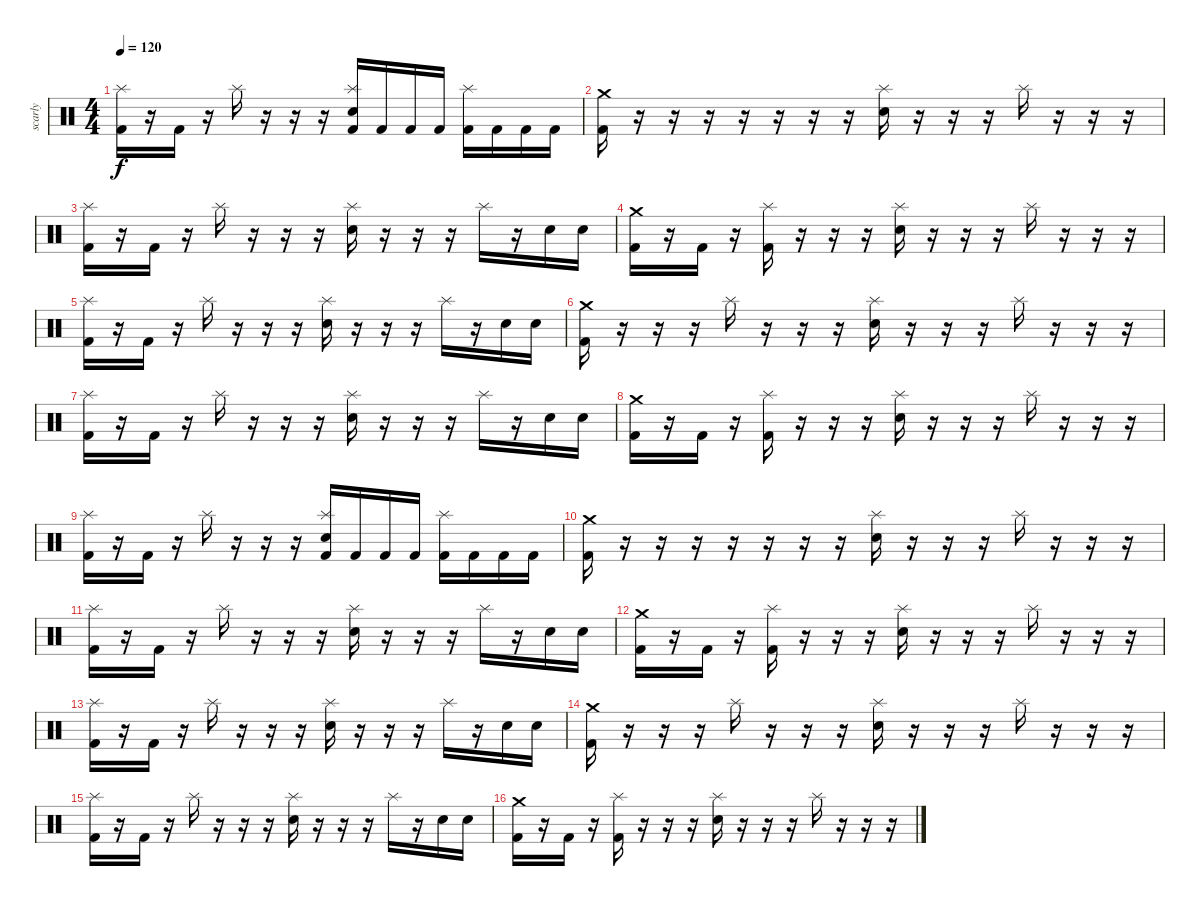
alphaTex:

\track ("scarly" "scarly") {instrument percussion}
\staff {score}
\articulation defaults
\ts (4 4)
\tempo 120
\clef neutral
\ks c
("Kick (hit) 2" "Splash (hit)").16{dy f} r.16 "Kick (hit) 2".16 r.16 "Splash (hit)".16 r.16 r.16 r.16 ("Snare (hit) 2" "Kick (hit) 2" "Splash (hit)").16 "Kick (hit) 2".16 "Kick (hit) 2".16 "Kick (hit) 2".16 ("Kick (hit) 2" "Splash (hit)").16 "Kick (hit) 2".16 "Kick (hit) 2".16 "Kick (hit) 2".16 |
("Kick (hit) 2" "Crash medium (hit)").16 r.16 r.16 r.16 r.16 r.16 r.16 r.16 ("Snare (hit) 2" "Splash (hit)").16 r.16 r.16 r.16 "Splash (hit)".16 r.16 r.16 r.16 |
("Kick (hit) 2" "Splash (hit)").16 r.16 "Kick (hit) 2".16 r.16 "Splash (hit)".16 r.16 r.16 r.16 ("Snare (hit) 2" "Splash (hit)").16 r.16 r.16 r.16 "Splash (hit)".16 r.16 "Snare (hit) 2".16 "Snare (hit) 2".16 |
("Kick (hit) 2" "Crash medium (hit)").16 r.16 "Kick (hit) 2".16 r.16 ("Kick (hit) 2" "Splash (hit)").16 r.16 r.16 r.16 ("Snare (hit) 2" "Splash (hit)").16 r.16 r.16 r.16 "Splash (hit)".16 r.16 r.16 r.16 |
("Kick (hit) 2" "Splash (hit)").16 r.16 "Kick (hit) 2".16 r.16 "Splash (hit)".16 r.16 r.16 r.16 ("Snare (hit) 2" "Splash (hit)").16 r.16 r.16 r.16 "Splash (hit)".16 r.16 "Snare (hit) 2".16 "Snare (hit) 2".16 |
("Kick (hit) 2" "Crash medium (hit)").16 r.16 r.16 r.16 "Splash (hit)".16 r.16 r.16 r.16 ("Snare (hit) 2" "Splash (hit)").16 r.16 r.16 r.16 "Splash (hit)".16 r.16 r.16 r.16 |
("Kick (hit) 2" "Splash (hit)").16 r.16 "Kick (hit) 2".16 r.16 "Splash (hit)".16 r.16 r.16 r.16 ("Snare (hit) 2" "Splash (hit)").16 r.16 r.16 r.16 "Splash (hit)".16 r.16 "Snare (hit) 2".16 "Snare (hit) 2".16 |
("Kick (hit) 2" "Crash medium (hit)").16 r.16 "Kick (hit) 2".16 r.16 ("Kick (hit) 2" "Splash (hit)").16 r.16 r.16 r.16 ("Snare (hit) 2" "Splash (hit)").16 r.16 r.16 r.16 "Splash (hit)".16 r.16 r.16 r.16 |
("Kick (hit) 2" "Splash (hit)").16 r.16 "Kick (hit) 2".16 r.16 "Splash (hit)".16 r.16 r.16 r.16 ("Snare (hit) 2" "Kick (hit) 2" "Splash (hit)").16 "Kick (hit) 2".16 "Kick (hit) 2".16 "Kick (hit) 2".16 ("Kick (hit) 2" "Splash (hit)").16 "Kick (hit) 2".16 "Kick (hit) 2".16 "Kick (hit) 2".16 |
("Kick (hit) 2" "Crash medium (hit)").16 r.16 r.16 r.16 r.16 r.16 r.16 r.16 ("Snare (hit) 2" "Splash (hit)").16 r.16 r.16 r.16 "Splash (hit)".16 r.16 r.16 r.16 |
("Kick (hit) 2" "Splash (hit)").16 r.16 "Kick (hit) 2".16 r.16 "Splash (hit)".16 r.16 r.16 r.16 ("Snare (hit) 2" "Splash (hit)").16 r.16 r.16 r.16 "Splash (hit)".16 r.16 "Snare (hit) 2".16 "Snare (hit) 2".16 |
("Kick (hit) 2" "Crash medium (hit)").16 r.16 "Kick (hit) 2".16 r.16 ("Kick (hit) 2" "Splash (hit)").16 r.16 r.16 r.16 ("Snare (hit) 2" "Splash (hit)").16 r.16 r.16 r.16 "Splash (hit)".16 r.16 r.16 r.16 |
("Kick (hit) 2" "Splash (hit)").16 r.16 "Kick (hit) 2".16 r.16 "Splash (hit)".16 r.16 r.16 r.16 ("Snare (hit) 2" "Splash (hit)").16 r.16 r.16 r.16 "Splash (hit)".16 r.16 "Snare (hit) 2".16 "Snare (hit) 2".16 |
("Kick (hit) 2" "Crash medium (hit)").16 r.16 r.16 r.16 "Splash (hit)".16 r.16 r.16 r.16 ("Snare (hit) 2" "Splash (hit)").16 r.16 r.16 r.16 "Splash (hit)".16 r.16 r.16 r.16 |
("Kick (hit) 2" "Splash (hit)").16 r.16 "Kick (hit) 2".16 r.16 "Splash (hit)".16 r.16 r.16 r.16 ("Snare (hit) 2" "Splash (hit)").16 r.16 r.16 r.16 "Splash (hit)".16 r.16 "Snare (hit) 2".16 "Snare (hit) 2".16 |
("Kick (hit) 2" "Crash medium (hit)").16 r.16 "Kick (hit) 2".16 r.16 ("Kick (hit) 2" "Splash (hit)").16 r.16 r.16 r.16 ("Snare (hit) 2" "Splash (hit)").16 r.16 r.16 r.16 "Splash (hit)".16 r.16 r.16 r.16
